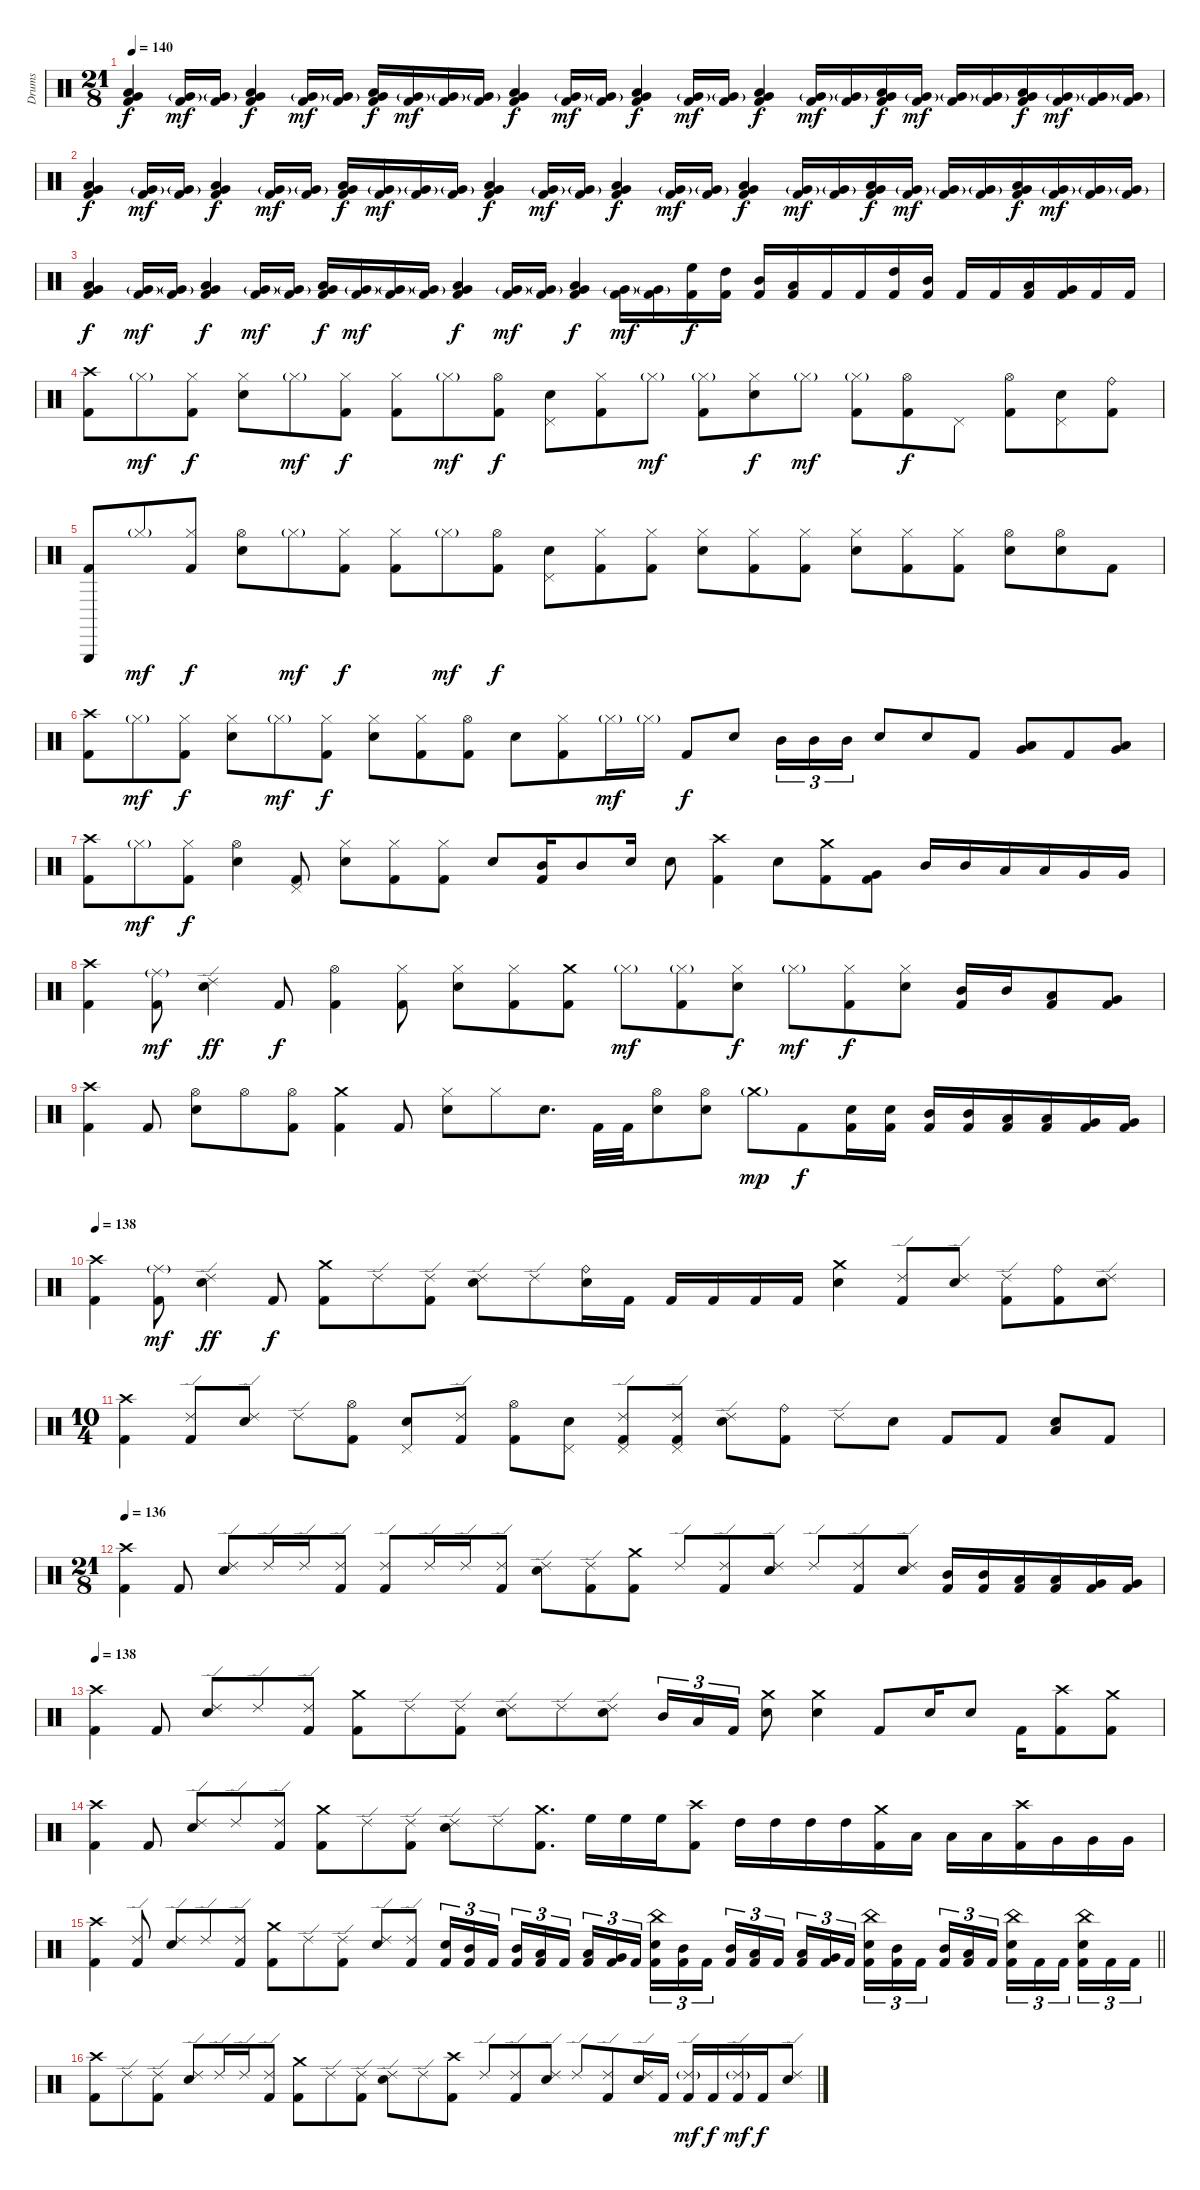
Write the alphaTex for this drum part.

\track ("Drums" "Drums") {instrument percussion}
\staff {score}
\articulation defaults
\ts (21 8)
\tempo 140
\clef neutral
\ks c
("Low Tom (hit)" "Very Low Tom (hit)" "Kick (hit) 2").4{dy f} ("Very Low Tom (hit)"{g} "Kick (hit) 2").16{dy mf} ("Very Low Tom (hit)"{g} "Kick (hit) 2").16 ("Low Tom (hit)" "Very Low Tom (hit)" "Kick (hit) 2").4{dy f} ("Very Low Tom (hit)"{g} "Kick (hit) 2").16{dy mf} ("Very Low Tom (hit)"{g} "Kick (hit) 2").16 ("Low Tom (hit)" "Very Low Tom (hit)" "Kick (hit) 2").16{dy f} ("Very Low Tom (hit)"{g} "Kick (hit) 2").16{dy mf} ("Very Low Tom (hit)"{g} "Kick (hit) 2").16 ("Very Low Tom (hit)"{g} "Kick (hit) 2").16 ("Low Tom (hit)" "Very Low Tom (hit)" "Kick (hit) 2").4{dy f} ("Very Low Tom (hit)"{g} "Kick (hit) 2").16{dy mf} ("Very Low Tom (hit)"{g} "Kick (hit) 2").16 ("Low Tom (hit)" "Very Low Tom (hit)" "Kick (hit) 2").4{dy f} ("Very Low Tom (hit)"{g} "Kick (hit) 2").16{dy mf} ("Very Low Tom (hit)"{g} "Kick (hit) 2").16 ("Low Tom (hit)" "Very Low Tom (hit)" "Kick (hit) 2").4{dy f} ("Very Low Tom (hit)"{g} "Kick (hit) 2").16{dy mf} ("Very Low Tom (hit)"{g} "Kick (hit) 2").16 ("Low Tom (hit)" "Very Low Tom (hit)" "Kick (hit) 2").16{dy f} ("Very Low Tom (hit)"{g} "Kick (hit) 2").16{dy mf} ("Very Low Tom (hit)"{g} "Kick (hit) 2").16 ("Very Low Tom (hit)"{g} "Kick (hit) 2").16 ("Low Tom (hit)" "Very Low Tom (hit)" "Kick (hit) 2").16{dy f} ("Very Low Tom (hit)"{g} "Kick (hit) 2").16{dy mf} ("Very Low Tom (hit)"{g} "Kick (hit) 2").16 ("Very Low Tom (hit)"{g} "Kick (hit) 2").16 |
("Low Tom (hit)" "Very Low Tom (hit)" "Kick (hit) 2").4{dy f} ("Very Low Tom (hit)"{g} "Kick (hit) 2").16{dy mf} ("Very Low Tom (hit)"{g} "Kick (hit) 2").16 ("Low Tom (hit)" "Very Low Tom (hit)" "Kick (hit) 2").4{dy f} ("Very Low Tom (hit)"{g} "Kick (hit) 2").16{dy mf} ("Very Low Tom (hit)"{g} "Kick (hit) 2").16 ("Low Tom (hit)" "Very Low Tom (hit)" "Kick (hit) 2").16{dy f} ("Very Low Tom (hit)"{g} "Kick (hit) 2").16{dy mf} ("Very Low Tom (hit)"{g} "Kick (hit) 2").16 ("Very Low Tom (hit)"{g} "Kick (hit) 2").16 ("Low Tom (hit)" "Very Low Tom (hit)" "Kick (hit) 2").4{dy f} ("Very Low Tom (hit)"{g} "Kick (hit) 2").16{dy mf} ("Very Low Tom (hit)"{g} "Kick (hit) 2").16 ("Low Tom (hit)" "Very Low Tom (hit)" "Kick (hit) 2").4{dy f} ("Very Low Tom (hit)"{g} "Kick (hit) 2").16{dy mf} ("Very Low Tom (hit)"{g} "Kick (hit) 2").16 ("Low Tom (hit)" "Very Low Tom (hit)" "Kick (hit) 2").4{dy f} ("Very Low Tom (hit)"{g} "Kick (hit) 2").16{dy mf} ("Very Low Tom (hit)"{g} "Kick (hit) 2").16 ("Low Tom (hit)" "Very Low Tom (hit)" "Kick (hit) 2").16{dy f} ("Very Low Tom (hit)"{g} "Kick (hit) 2").16{dy mf} ("Very Low Tom (hit)"{g} "Kick (hit) 2").16 ("Very Low Tom (hit)"{g} "Kick (hit) 2").16 ("Low Tom (hit)" "Very Low Tom (hit)" "Kick (hit) 2").16{dy f} ("Very Low Tom (hit)"{g} "Kick (hit) 2").16{dy mf} ("Very Low Tom (hit)"{g} "Kick (hit) 2").16 ("Very Low Tom (hit)"{g} "Kick (hit) 2").16 |
("Low Tom (hit)" "Very Low Tom (hit)" "Kick (hit) 2").4{dy f} ("Very Low Tom (hit)"{g} "Kick (hit) 2").16{dy mf} ("Very Low Tom (hit)"{g} "Kick (hit) 2").16 ("Low Tom (hit)" "Very Low Tom (hit)" "Kick (hit) 2").4{dy f} ("Very Low Tom (hit)"{g} "Kick (hit) 2").16{dy mf} ("Very Low Tom (hit)"{g} "Kick (hit) 2").16 ("Low Tom (hit)" "Very Low Tom (hit)" "Kick (hit) 2").16{dy f} ("Very Low Tom (hit)"{g} "Kick (hit) 2").16{dy mf} ("Very Low Tom (hit)"{g} "Kick (hit) 2").16 ("Very Low Tom (hit)"{g} "Kick (hit) 2").16 ("Low Tom (hit)" "Very Low Tom (hit)" "Kick (hit) 2").4{dy f} ("Very Low Tom (hit)"{g} "Kick (hit) 2").16{dy mf} ("Very Low Tom (hit)"{g} "Kick (hit) 2").16 ("Low Tom (hit)" "Very Low Tom (hit)" "Kick (hit) 2").4{dy f} ("Very Low Tom (hit)"{g} "Kick (hit) 2").16{dy mf} ("Very Low Tom (hit)"{g} "Kick (hit) 2").16 ("High Floor Tom (hit)" "Kick (hit) 2").16{dy f} ("High Tom (hit)" "Kick (hit) 2").16 ("Mid Tom (hit)" "Kick (hit) 2").16 ("Low Tom (hit)" "Kick (hit) 2").16 "Kick (hit) 2".16 "Kick (hit) 2".16 ("High Tom (hit)" "Kick (hit) 2").16 ("Mid Tom (hit)" "Kick (hit) 2").16 "Kick (hit) 2".16 "Kick (hit) 2".16 ("Low Tom (hit)" "Kick (hit) 2").16 ("Very Low Tom (hit)" "Kick (hit) 2").16 "Kick (hit) 2".16 "Kick (hit) 2".16 |
("Crash high (hit)" "Kick (hit) 2").8 "Hi-Hat (closed)"{g}.8{dy mf} ("Hi-Hat (closed)" "Kick (hit) 2").8{dy f} ("Hi-Hat (closed)" "Snare (hit) 2").8 "Hi-Hat (closed)"{g}.8{dy mf} ("Hi-Hat (closed)" "Kick (hit) 2").8{dy f} ("Hi-Hat (closed)" "Kick (hit) 2").8 "Hi-Hat (closed)"{g}.8{dy mf} ("Hi-Hat (open)" "Kick (hit) 2").8{dy f} ("Pedal Hi-Hat (hit)" "Snare (hit) 2").8 ("Hi-Hat (closed)" "Kick (hit) 2").8 "Hi-Hat (closed)"{g}.8{dy mf} ("Hi-Hat (closed)"{g} "Kick (hit) 2").8 ("Hi-Hat (closed)" "Snare (hit) 2").8{dy f} "Hi-Hat (closed)"{g}.8{dy mf} ("Hi-Hat (closed)"{g} "Kick (hit) 2").8 ("Hi-Hat (open)" "Kick (hit) 2").8{dy f} "Pedal Hi-Hat (hit)".8 ("Hi-Hat (open)" "Kick (hit) 2").8 ("Pedal Hi-Hat (hit)" "Snare (hit) 2").8 ("Ride (bell)" "Kick (hit) 2").8 |
("Triangle (hit)" "Kick (hit) 2").8 "Hi-Hat (closed)"{g}.8{dy mf} ("Hi-Hat (closed)" "Kick (hit) 2").8{dy f} ("Hi-Hat (open)" "Snare (hit) 2").8 "Hi-Hat (closed)"{g}.8{dy mf} ("Hi-Hat (closed)" "Kick (hit) 2").8{dy f} ("Hi-Hat (closed)" "Kick (hit) 2").8 "Hi-Hat (closed)"{g}.8{dy mf} ("Hi-Hat (open)" "Kick (hit) 2").8{dy f} ("Pedal Hi-Hat (hit)" "Snare (hit) 2").8 ("Hi-Hat (closed)" "Kick (hit) 2").8 ("Hi-Hat (closed)" "Kick (hit) 2").8 ("Hi-Hat (closed)" "Snare (hit) 2").8 ("Hi-Hat (closed)" "Kick (hit) 2").8 ("Hi-Hat (closed)" "Kick (hit) 2").8 ("Hi-Hat (closed)" "Snare (hit) 2").8 ("Hi-Hat (closed)" "Kick (hit) 2").8 ("Hi-Hat (closed)" "Kick (hit) 2").8 ("Hi-Hat (open)" "Snare (hit) 2").8 ("Hi-Hat (open)" "Snare (hit) 2").8 "Kick (hit) 2".8 |
("Crash high (hit)" "Kick (hit) 2").8 "Hi-Hat (closed)"{g}.8{dy mf} ("Hi-Hat (closed)" "Kick (hit) 2").8{dy f} ("Hi-Hat (closed)" "Snare (hit) 2").8 "Hi-Hat (closed)"{g}.8{dy mf} ("Hi-Hat (closed)" "Kick (hit) 2").8{dy f} ("Hi-Hat (closed)" "Snare (hit) 2").8 ("Hi-Hat (closed)" "Kick (hit) 2").8 ("Hi-Hat (open)" "Kick (hit) 2").8 "Snare (hit) 2".8 ("Hi-Hat (closed)" "Kick (hit) 2").8 "Hi-Hat (closed)"{g}.16{dy mf} "Hi-Hat (closed)"{g}.16 "Kick (hit) 2".8{dy f} "Snare (hit) 2".8 "Mid Tom (hit)".16{tu (3 2)} "Mid Tom (hit)".16{tu (3 2)} "Mid Tom (hit)".16{tu (3 2)} "Snare (hit) 2".8 "Snare (hit) 2".8 "Kick (hit) 2".8 ("Low Tom (hit)" "Very Low Tom (hit)").8 "Kick (hit) 2".8 ("Very Low Tom (hit)" "Low Floor Tom (hit)").8 |
("Crash high (hit)" "Kick (hit) 2").8 "Hi-Hat (closed)"{g}.8{dy mf} ("Hi-Hat (closed)" "Kick (hit) 2").8{dy f} ("Hi-Hat (open)" "Snare (hit) 2").4 ("Pedal Hi-Hat (hit)" "Kick (hit) 2").8 ("Hi-Hat (closed)" "Snare (hit) 2").8 ("Hi-Hat (closed)" "Kick (hit) 2").8 ("Hi-Hat (closed)" "Kick (hit) 2").8 "Snare (hit) 2".8 ("Mid Tom (hit)" "Kick (hit) 2").16 "Mid Tom (hit)".8 "Snare (hit) 2".16 "Snare (hit) 2".8 ("Crash high (hit)" "Kick (hit) 2").4 "Snare (hit) 2".8 ("Crash medium (hit)" "Kick (hit) 2").8 ("Very Low Tom (hit)" "Kick (hit) 2").8 "Mid Tom (hit)".16 "Mid Tom (hit)".16 "Low Tom (hit)".16 "Low Tom (hit)".16 "Very Low Tom (hit)".16 "Very Low Tom (hit)".16 |
("Crash high (hit)" "Kick (hit) 2").4 ("Ride (middle)"{g} "Kick (hit) 2").8{dy mf} ("Ride (edge) 2" "Snare (hit) 2").4{dy ff} "Kick (hit) 2".8{dy f} ("Hi-Hat (open)" "Kick (hit) 2").4 ("Hi-Hat (closed)" "Kick (hit) 2").8 ("Hi-Hat (closed)" "Snare (hit) 2").8 ("Hi-Hat (closed)" "Kick (hit) 2").8 ("Crash medium (hit)" "Kick (hit) 2").8 "Hi-Hat (closed)"{g}.8{dy mf} ("Hi-Hat (closed)"{g} "Kick (hit) 2").8 ("Hi-Hat (closed)" "Snare (hit) 2").8{dy f} "Hi-Hat (closed)"{g}.8{dy mf} ("Hi-Hat (closed)" "Kick (hit) 2").8{dy f} ("Hi-Hat (closed)" "Snare (hit) 2").8 ("Mid Tom (hit)" "Kick (hit) 2").16 "Mid Tom (hit)".16 ("Low Tom (hit)" "Kick (hit) 2").8 ("Very Low Tom (hit)" "Kick (hit) 2").8 |
("Crash high (hit)" "Kick (hit) 2").4 "Kick (hit) 2".8 ("Hi-Hat (open)" "Snare (hit) 2").8 "Hi-Hat (open)".8 ("Hi-Hat (open)" "Kick (hit) 2").8 ("Crash medium (hit)" "Kick (hit) 2").4 "Kick (hit) 2".8 ("Hi-Hat (closed)" "Snare (hit) 2").8 "Hi-Hat (closed)".8 "Snare (hit) 2".8{d} "Kick (hit) 2".32 "Kick (hit) 2".32 ("Hi-Hat (open)" "Snare (hit) 2").8 ("Hi-Hat (open)" "Snare (hit) 2").8 "Crash medium (hit)"{g}.8{dy mp} "Kick (hit) 2".8{dy f} ("Snare (hit) 2" "Kick (hit) 2").16 ("Snare (hit) 2" "Kick (hit) 2").16 ("Mid Tom (hit)" "Kick (hit) 2").16 ("Mid Tom (hit)" "Kick (hit) 2").16 ("Low Tom (hit)" "Kick (hit) 2").16 ("Low Tom (hit)" "Kick (hit) 2").16 ("Very Low Tom (hit)" "Kick (hit) 2").16 ("Very Low Tom (hit)" "Kick (hit) 2").16 |
\tempo 138
("Crash high (hit)" "Kick (hit) 2").4 ("Ride (middle)"{g} "Kick (hit) 2").8{dy mf} ("Ride (edge) 2" "Snare (hit) 2").4{dy ff} "Kick (hit) 2".8{dy f} ("Crash medium (hit)" "Kick (hit) 2").8 "Ride (edge) 2".8 ("Ride (edge) 2" "Kick (hit) 2").8 ("Ride (edge) 2" "Snare (hit) 2").8 "Ride (edge) 2".8 ("Ride (bell)" "Snare (hit) 2").16 "Kick (hit) 2".16 "Kick (hit) 2".16 "Kick (hit) 2".16 "Kick (hit) 2".16 "Kick (hit) 2".16 ("Crash medium (hit)" "Snare (hit) 2").4 ("Ride (edge) 2" "Kick (hit) 2").8 ("Ride (edge) 2" "Snare (hit) 2").8 ("Ride (edge) 2" "Kick (hit) 2").8 ("Ride (bell)" "Kick (hit) 2").8 ("Ride (edge) 2" "Snare (hit) 2").8 |
\ts (10 4)
("Crash high (hit)" "Kick (hit) 2").4 ("Ride (edge) 2" "Kick (hit) 2").8 ("Ride (edge) 2" "Snare (hit) 2").8 "Ride (edge) 2".8 ("Hi-Hat (open)" "Kick (hit) 2").8 ("Pedal Hi-Hat (hit)" "Snare (hit) 2").8 ("Ride (edge) 2" "Kick (hit) 2").8 ("Hi-Hat (open)" "Kick (hit) 2").8 ("Pedal Hi-Hat (hit)" "Snare (hit) 2").8 ("Ride (edge) 2" "Pedal Hi-Hat (hit)" "Kick (hit) 2").8 ("Ride (edge) 2" "Pedal Hi-Hat (hit)" "Kick (hit) 2").8 ("Ride (edge) 2" "Snare (hit) 2").8 ("Ride (bell)" "Kick (hit) 2").8 "Ride (edge) 2".8 "Snare (hit) 2".8 "Kick (hit) 2".8 "Kick (hit) 2".8 ("Snare (hit) 2" "Low Tom (hit)").8 "Kick (hit) 2".8 |
\ts (21 8)
\tempo 136
("Crash high (hit)" "Kick (hit) 2").4 "Kick (hit) 2".8 ("Ride (edge) 2" "Snare (hit) 2").8 "Ride (edge) 2".16 "Ride (edge) 2".16 ("Ride (edge) 2" "Kick (hit) 2").8 ("Ride (edge) 2" "Kick (hit) 2").8 "Ride (edge) 2".16 "Ride (edge) 2".16 ("Ride (edge) 2" "Kick (hit) 2").8 ("Ride (edge) 2" "Snare (hit) 2").8 ("Ride (edge) 2" "Kick (hit) 2").8 ("Crash medium (hit)" "Kick (hit) 2").8 "Ride (edge) 2".8 ("Ride (edge) 2" "Kick (hit) 2").8 ("Ride (edge) 2" "Snare (hit) 2").8 "Ride (edge) 2".8 ("Ride (edge) 2" "Kick (hit) 2").8 ("Ride (edge) 2" "Snare (hit) 2").8 ("Mid Tom (hit)" "Kick (hit) 2").16 ("Mid Tom (hit)" "Kick (hit) 2").16 ("Low Tom (hit)" "Kick (hit) 2").16 ("Low Tom (hit)" "Kick (hit) 2").16 ("Very Low Tom (hit)" "Kick (hit) 2").16 ("Very Low Tom (hit)" "Kick (hit) 2").16 |
\tempo 138
("Crash high (hit)" "Kick (hit) 2").4 "Kick (hit) 2".8 ("Ride (edge) 2" "Snare (hit) 2").8 "Ride (edge) 2".8 ("Ride (edge) 2" "Kick (hit) 2").8 ("Crash medium (hit)" "Kick (hit) 2").8 "Ride (edge) 2".8 ("Ride (edge) 2" "Kick (hit) 2").8 ("Ride (edge) 2" "Snare (hit) 2").8 "Ride (edge) 2".8 ("Ride (edge) 2" "Snare (hit) 2").8 "Mid Tom (hit)".16{tu (3 2)} "Low Tom (hit)".16{tu (3 2)} "Kick (hit) 2".16{tu (3 2)} ("Crash medium (hit)" "Snare (hit) 2").8 ("Crash medium (hit)" "Snare (hit) 2").4 "Kick (hit) 2".8 "Snare (hit) 2".16 "Snare (hit) 2".8 "Kick (hit) 2".16 ("Crash high (hit)" "Kick (hit) 2").8 ("Crash medium (hit)" "Kick (hit) 2").8 |
("Crash high (hit)" "Kick (hit) 2").4 "Kick (hit) 2".8 ("Ride (edge) 2" "Snare (hit) 2").8 "Ride (edge) 2".8 ("Ride (edge) 2" "Kick (hit) 2").8 ("Crash medium (hit)" "Kick (hit) 2").8 "Ride (edge) 2".8 ("Ride (edge) 2" "Kick (hit) 2").8 ("Ride (edge) 2" "Snare (hit) 2").8 "Ride (edge) 2".8 ("Crash medium (hit)" "Kick (hit) 2").8{d} "High Floor Tom (hit)".16 "High Floor Tom (hit)".16 "High Floor Tom (hit)".16 ("Crash high (hit)" "Kick (hit) 2").8 "High Tom (hit)".16 "High Tom (hit)".16 "High Tom (hit)".16 "High Tom (hit)".16 ("Crash medium (hit)" "Kick (hit) 2").16 "Low Tom (hit)".16 "Low Tom (hit)".16 "Low Tom (hit)".16 ("Crash high (hit)" "Kick (hit) 2").16 "Very Low Tom (hit)".16 "Very Low Tom (hit)".16 "Very Low Tom (hit)".16 |
\barLineRight lightlight
("Crash high (hit)" "Kick (hit) 2").4 ("Ride (edge) 2" "Kick (hit) 2").8 ("Ride (edge) 2" "Snare (hit) 2").8 "Ride (edge) 2".8 ("Ride (edge) 2" "Kick (hit) 2").8 ("Crash medium (hit)" "Kick (hit) 2").8 "Ride (edge) 2".8 ("Ride (edge) 2" "Kick (hit) 2").8 ("Ride (edge) 2" "Snare (hit) 2").8 ("Ride (edge) 2" "Kick (hit) 2").8 ("Snare (hit) 2" "Kick (hit) 2").16{tu (3 2)} ("Mid Tom (hit)" "Kick (hit) 2").16{tu (3 2)} "Kick (hit) 2".16{tu (3 2)} ("Mid Tom (hit)" "Kick (hit) 2").16{tu (3 2)} ("Low Tom (hit)" "Kick (hit) 2").16{tu (3 2)} "Kick (hit) 2".16{tu (3 2) beam splitsecondary} ("Low Tom (hit)" "Kick (hit) 2").16{tu (3 2)} ("Very Low Tom (hit)" "Kick (hit) 2").16{tu (3 2)} "Kick (hit) 2".16{tu (3 2) beam splitsecondary} ("China (hit)" "Snare (hit) 2" "Kick (hit) 2").16{tu (3 2)} ("Mid Tom (hit)" "Kick (hit) 2").16{tu (3 2)} "Kick (hit) 2".16{tu (3 2)} ("Mid Tom (hit)" "Kick (hit) 2").16{tu (3 2)} ("Low Tom (hit)" "Kick (hit) 2").16{tu (3 2)} "Kick (hit) 2".16{tu (3 2) beam splitsecondary} ("Low Tom (hit)" "Kick (hit) 2").16{tu (3 2)} ("Very Low Tom (hit)" "Kick (hit) 2").16{tu (3 2)} "Kick (hit) 2".16{tu (3 2) beam splitsecondary} ("China (hit)" "Snare (hit) 2" "Kick (hit) 2").16{tu (3 2)} ("Mid Tom (hit)" "Kick (hit) 2").16{tu (3 2)} "Kick (hit) 2".16{tu (3 2)} ("Mid Tom (hit)" "Kick (hit) 2").16{tu (3 2)} ("Low Tom (hit)" "Kick (hit) 2").16{tu (3 2)} "Kick (hit) 2".16{tu (3 2) beam splitsecondary} ("China (hit)" "Snare (hit) 2" "Kick (hit) 2").16{tu (3 2)} "Kick (hit) 2".16{tu (3 2)} "Kick (hit) 2".16{tu (3 2) beam splitsecondary} ("China (hit)" "Snare (hit) 2" "Kick (hit) 2").16{tu (3 2)} "Kick (hit) 2".16{tu (3 2)} "Kick (hit) 2".16{tu (3 2)} |
\section ("" "")
("Crash high (hit)" "Kick (hit) 2").8 "Ride (edge) 2".8 ("Ride (edge) 2" "Kick (hit) 2").8 ("Ride (edge) 2" "Snare (hit) 2").8 "Ride (edge) 2".16 "Ride (edge) 2".16 ("Ride (edge) 2" "Kick (hit) 2").8 ("Crash medium (hit)" "Kick (hit) 2").8 "Ride (edge) 2".8 ("Ride (edge) 2" "Kick (hit) 2").8 ("Ride (edge) 2" "Snare (hit) 2").8 "Ride (edge) 2".8 ("Crash high (hit)" "Kick (hit) 2").8 "Ride (edge) 2".8 ("Ride (edge) 2" "Kick (hit) 2").8 ("Ride (edge) 2" "Snare (hit) 2").8 "Ride (edge) 2".8 ("Ride (edge) 2" "Kick (hit) 2").8 ("Ride (edge) 2" "Snare (hit) 2").16 "Kick (hit) 2".16 ("Ride (edge) 2"{g} "Kick (hit) 2").16{dy mf} "Kick (hit) 2".16{dy f} ("Ride (edge) 2"{g} "Kick (hit) 2").16{dy mf} "Kick (hit) 2".16{dy f} ("Ride (edge) 2" "Snare (hit) 2").8
